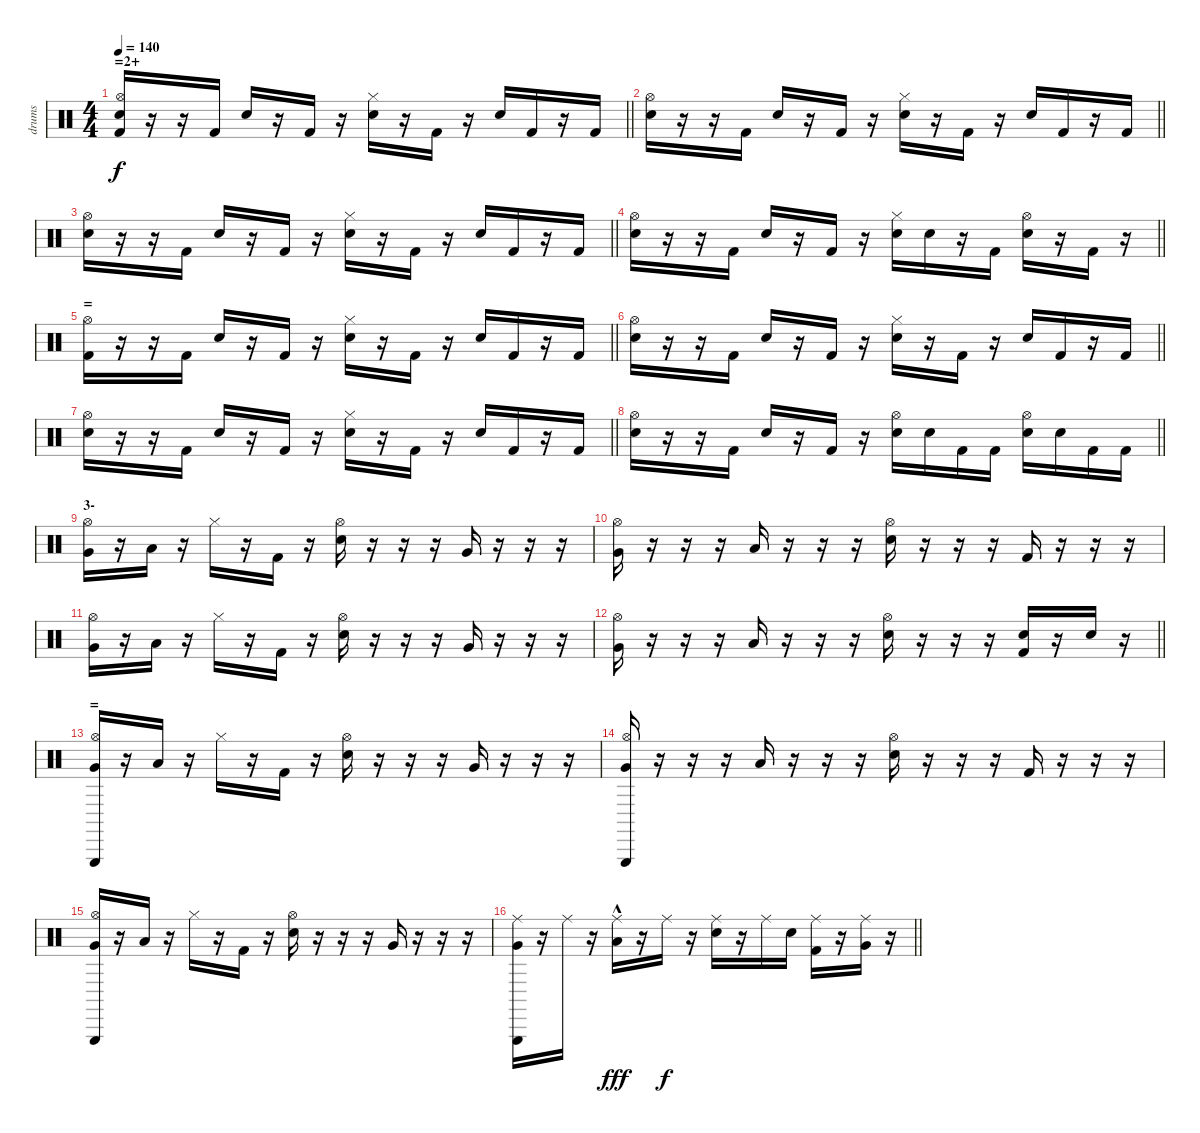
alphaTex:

\track ("drums" "drums") {instrument percussion}
\staff {score}
\articulation defaults
\ts (4 4)
\section ("" "=2+")
\tempo 140
\clef neutral
\barLineRight lightlight
\ks c
("Kick (hit) 2" "Hi-Hat (open)" "Electric Snare (hit)").16{dy f} r.16 r.16 "Kick (hit) 2".16 "Electric Snare (hit)".16 r.16 "Kick (hit) 2".16 r.16 ("Electric Snare (hit)" "Hi-Hat (closed)").16 r.16 "Kick (hit) 2".16 r.16 "Electric Snare (hit)".16 "Kick (hit) 2".16 r.16 "Kick (hit) 2".16 |
\barLineRight lightlight
("Hi-Hat (open)" "Electric Snare (hit)").16 r.16 r.16 "Kick (hit) 2".16 "Electric Snare (hit)".16 r.16 "Kick (hit) 2".16 r.16 ("Electric Snare (hit)" "Hi-Hat (closed)").16 r.16 "Kick (hit) 2".16 r.16 "Electric Snare (hit)".16 "Kick (hit) 2".16 r.16 "Kick (hit) 2".16 |
\barLineRight lightlight
("Hi-Hat (open)" "Electric Snare (hit)").16 r.16 r.16 "Kick (hit) 2".16 "Electric Snare (hit)".16 r.16 "Kick (hit) 2".16 r.16 ("Electric Snare (hit)" "Hi-Hat (closed)").16 r.16 "Kick (hit) 2".16 r.16 "Electric Snare (hit)".16 "Kick (hit) 2".16 r.16 "Kick (hit) 2".16 |
\barLineRight lightlight
("Hi-Hat (open)" "Electric Snare (hit)").16 r.16 r.16 "Kick (hit) 2".16 "Electric Snare (hit)".16 r.16 "Kick (hit) 2".16 r.16 ("Electric Snare (hit)" "Hi-Hat (closed)").16 "Electric Snare (hit)".16 r.16 "Kick (hit) 2".16 ("Electric Snare (hit)" "Hi-Hat (open)").16 r.16 "Kick (hit) 2".16 r.16 |
\section ("" "=")
\barLineRight lightlight
("Kick (hit) 2" "Hi-Hat (open)").16 r.16 r.16 "Kick (hit) 2".16 "Electric Snare (hit)".16 r.16 "Kick (hit) 2".16 r.16 ("Electric Snare (hit)" "Hi-Hat (closed)").16 r.16 "Kick (hit) 2".16 r.16 "Electric Snare (hit)".16 "Kick (hit) 2".16 r.16 "Kick (hit) 2".16 |
\barLineRight lightlight
("Hi-Hat (open)" "Electric Snare (hit)").16 r.16 r.16 "Kick (hit) 2".16 "Electric Snare (hit)".16 r.16 "Kick (hit) 2".16 r.16 ("Electric Snare (hit)" "Hi-Hat (closed)").16 r.16 "Kick (hit) 2".16 r.16 "Electric Snare (hit)".16 "Kick (hit) 2".16 r.16 "Kick (hit) 2".16 |
\barLineRight lightlight
("Hi-Hat (open)" "Electric Snare (hit)").16 r.16 r.16 "Kick (hit) 2".16 "Electric Snare (hit)".16 r.16 "Kick (hit) 2".16 r.16 ("Electric Snare (hit)" "Hi-Hat (closed)").16 r.16 "Kick (hit) 2".16 r.16 "Electric Snare (hit)".16 "Kick (hit) 2".16 r.16 "Kick (hit) 2".16 |
\barLineRight lightlight
("Hi-Hat (open)" "Electric Snare (hit)").16 r.16 r.16 "Kick (hit) 2".16 "Electric Snare (hit)".16 r.16 "Kick (hit) 2".16 r.16 ("Electric Snare (hit)" "Hi-Hat (open)").16 "Electric Snare (hit)".16 "Kick (hit) 2".16 "Kick (hit) 2".16 ("Electric Snare (hit)" "Hi-Hat (open)").16 "Electric Snare (hit)".16 "Kick (hit) 2".16 "Kick (hit) 2".16 |
\section ("" "3-")
("Very Low Tom (hit)" "Hi-Hat (open)").16 r.16 "Low Floor Tom (hit)".16 r.16 "Hi-Hat (closed)".16 r.16 "Kick (hit) 2".16 r.16 ("Electric Snare (hit)" "Hi-Hat (open)").16 r.16 r.16 r.16 "Very Low Tom (hit)".16 r.16 r.16 r.16 |
("Very Low Tom (hit)" "Hi-Hat (open)").16 r.16 r.16 r.16 "Low Floor Tom (hit)".16 r.16 r.16 r.16 ("Electric Snare (hit)" "Hi-Hat (open)").16 r.16 r.16 r.16 "Kick (hit) 2".16 r.16 r.16 r.16 |
("Very Low Tom (hit)" "Hi-Hat (open)").16 r.16 "Low Floor Tom (hit)".16 r.16 "Hi-Hat (closed)".16 r.16 "Kick (hit) 2".16 r.16 ("Electric Snare (hit)" "Hi-Hat (open)").16 r.16 r.16 r.16 "Very Low Tom (hit)".16 r.16 r.16 r.16 |
\barLineRight lightlight
("Very Low Tom (hit)" "Hi-Hat (open)").16 r.16 r.16 r.16 "Low Floor Tom (hit)".16 r.16 r.16 r.16 ("Electric Snare (hit)" "Hi-Hat (open)").16 r.16 r.16 r.16 ("Kick (hit) 2" "Electric Snare (hit)").16 r.16 "Electric Snare (hit)".16 r.16 |
\section ("" "=")
("Very Low Tom (hit)" "Triangle (hit)" "Hi-Hat (open)").16 r.16 "Low Floor Tom (hit)".16 r.16 "Hi-Hat (closed)".16 r.16 "Kick (hit) 2".16 r.16 ("Electric Snare (hit)" "Hi-Hat (open)").16 r.16 r.16 r.16 "Very Low Tom (hit)".16 r.16 r.16 r.16 |
("Very Low Tom (hit)" "Triangle (hit)" "Hi-Hat (open)").16 r.16 r.16 r.16 "Low Floor Tom (hit)".16 r.16 r.16 r.16 ("Electric Snare (hit)" "Hi-Hat (open)").16 r.16 r.16 r.16 "Kick (hit) 2".16 r.16 r.16 r.16 |
("Very Low Tom (hit)" "Triangle (hit)" "Hi-Hat (open)").16 r.16 "Low Floor Tom (hit)".16 r.16 "Hi-Hat (closed)".16 r.16 "Kick (hit) 2".16 r.16 ("Electric Snare (hit)" "Hi-Hat (open)").16 r.16 r.16 r.16 "Very Low Tom (hit)".16 r.16 r.16 r.16 |
\barLineRight lightlight
("Very Low Tom (hit)" "Triangle (hit)" "Ride (middle)").16 r.16 "Ride (middle)".16 r.16 ("Low Floor Tom (hit)" "Ride (middle)"{hac}).16{dy fff} r.16 "Ride (middle)".16{dy f} r.16 ("Electric Snare (hit)" "Ride (middle)").16 r.16 "Ride (middle)".16 "Electric Snare (hit)".16 ("Kick (hit) 2" "Ride (middle)").16 r.16 ("Very Low Tom (hit)" "Ride (middle)").16 r.16
